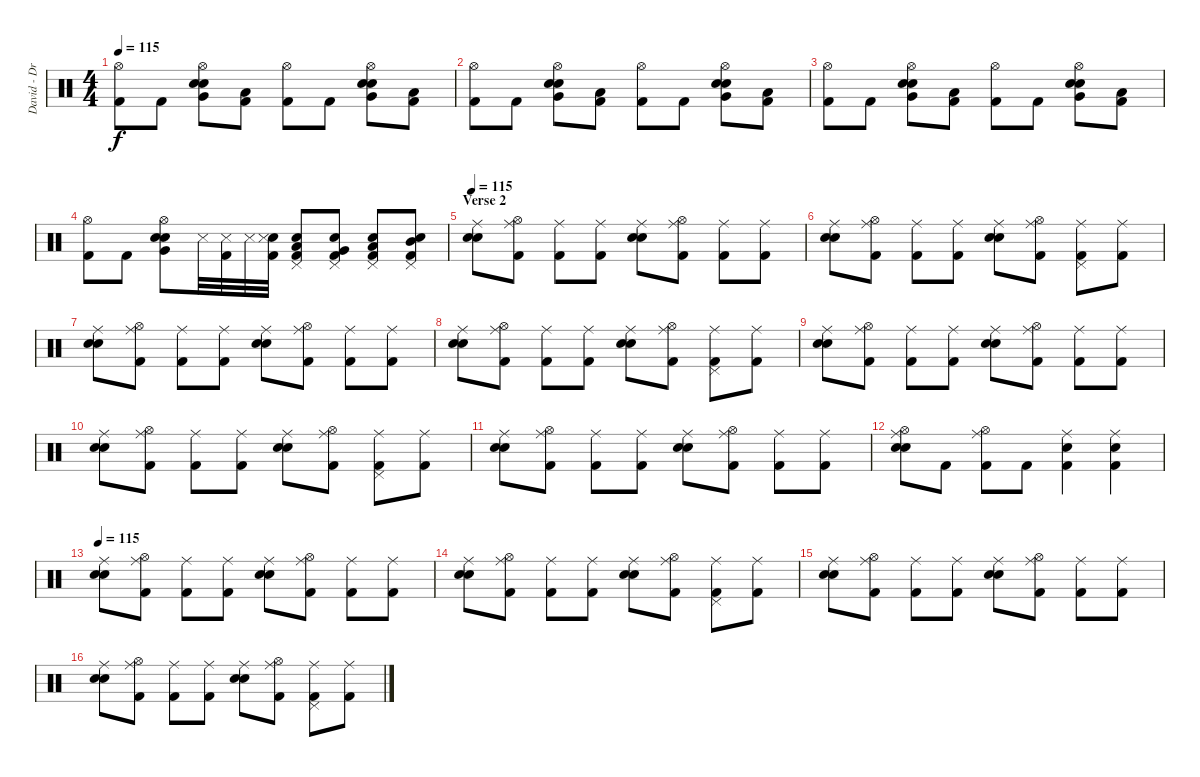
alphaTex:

\track ("David - Drums" "David - Dr") {instrument percussion}
\staff {score}
\articulation defaults
\ts (4 4)
\tempo 115
\clef neutral
\ks c
("Hi-Hat (open)" "Kick (hit) 2").8{dy f} "Kick (hit) 2".8 ("Hi-Hat (open)" "Very Low Tom (hit)" "Electric Snare (hit)" "Snare (hit) 2").8 ("Low Floor Tom (hit)" "Kick (hit) 2").8 ("Hi-Hat (open)" "Kick (hit) 2").8 "Kick (hit) 2".8 ("Hi-Hat (open)" "Very Low Tom (hit)" "Electric Snare (hit)" "Snare (hit) 2").8 ("Low Floor Tom (hit)" "Kick (hit) 2").8 |
("Hi-Hat (open)" "Kick (hit) 2").8 "Kick (hit) 2".8 ("Hi-Hat (open)" "Very Low Tom (hit)" "Electric Snare (hit)" "Snare (hit) 2").8 ("Low Floor Tom (hit)" "Kick (hit) 2").8 ("Hi-Hat (open)" "Kick (hit) 2").8 "Kick (hit) 2".8 ("Hi-Hat (open)" "Very Low Tom (hit)" "Electric Snare (hit)" "Snare (hit) 2").8 ("Low Floor Tom (hit)" "Kick (hit) 2").8 |
("Hi-Hat (open)" "Kick (hit) 2").8 "Kick (hit) 2".8 ("Hi-Hat (open)" "Very Low Tom (hit)" "Electric Snare (hit)" "Snare (hit) 2").8 ("Low Floor Tom (hit)" "Kick (hit) 2").8 ("Hi-Hat (open)" "Kick (hit) 2").8 "Kick (hit) 2".8 ("Hi-Hat (open)" "Very Low Tom (hit)" "Electric Snare (hit)" "Snare (hit) 2").8 ("Low Floor Tom (hit)" "Kick (hit) 2").8 |
("Hi-Hat (open)" "Kick (hit) 2").8 "Kick (hit) 2".8 ("Hi-Hat (open)" "Very Low Tom (hit)" "Electric Snare (hit)" "Snare (hit) 2").8 "Snare (side stick) 3".32 ("Snare (side stick) 3" "Kick (hit) 2").32 "Snare (side stick) 3".32 ("Electric Snare (hit)" "Snare (side stick) 3" "Kick (hit) 2").32 ("Pedal Hi-Hat (hit)" "Low Floor Tom (hit)" "Electric Snare (hit)" "Kick (hit) 2").8 ("Pedal Hi-Hat (hit)" "Very Low Tom (hit)" "Electric Snare (hit)" "Kick (hit) 2").8 ("Pedal Hi-Hat (hit)" "Low Tom (hit)" "Electric Snare (hit)" "Kick (hit) 2").8 ("Pedal Hi-Hat (hit)" "Mid Tom (hit)" "Electric Snare (hit)" "Kick (hit) 2").8 |
\section ("" "Verse 2")
\tempo 115
("Ride (middle)" "Electric Snare (hit)" "Snare (hit) 2").8 ("Ride (middle)" "Hi-Hat (open)" "Kick (hit) 2").8 ("Ride (middle)" "Kick (hit) 2").8 ("Ride (middle)" "Kick (hit) 2").8 ("Ride (middle)" "Electric Snare (hit)" "Snare (hit) 2").8 ("Ride (middle)" "Hi-Hat (open)" "Kick (hit) 2").8 ("Ride (middle)" "Kick (hit) 2").8 ("Ride (middle)" "Kick (hit) 2").8 |
("Ride (middle)" "Electric Snare (hit)" "Snare (hit) 2").8 ("Ride (middle)" "Hi-Hat (open)" "Kick (hit) 2").8 ("Ride (middle)" "Kick (hit) 2").8 ("Ride (middle)" "Kick (hit) 2").8 ("Ride (middle)" "Electric Snare (hit)" "Snare (hit) 2").8 ("Ride (middle)" "Hi-Hat (open)" "Kick (hit) 2").8 ("Ride (middle)" "Pedal Hi-Hat (hit)" "Kick (hit) 2").8 ("Ride (middle)" "Kick (hit) 2").8 |
("Ride (middle)" "Electric Snare (hit)" "Snare (hit) 2").8 ("Ride (middle)" "Hi-Hat (open)" "Kick (hit) 2").8 ("Ride (middle)" "Kick (hit) 2").8 ("Ride (middle)" "Kick (hit) 2").8 ("Ride (middle)" "Electric Snare (hit)" "Snare (hit) 2").8 ("Ride (middle)" "Hi-Hat (open)" "Kick (hit) 2").8 ("Ride (middle)" "Kick (hit) 2").8 ("Ride (middle)" "Kick (hit) 2").8 |
("Ride (middle)" "Electric Snare (hit)" "Snare (hit) 2").8 ("Ride (middle)" "Hi-Hat (open)" "Kick (hit) 2").8 ("Ride (middle)" "Kick (hit) 2").8 ("Ride (middle)" "Kick (hit) 2").8 ("Ride (middle)" "Electric Snare (hit)" "Snare (hit) 2").8 ("Ride (middle)" "Hi-Hat (open)" "Kick (hit) 2").8 ("Ride (middle)" "Pedal Hi-Hat (hit)" "Kick (hit) 2").8 ("Ride (middle)" "Kick (hit) 2").8 |
("Ride (middle)" "Electric Snare (hit)" "Snare (hit) 2").8 ("Ride (middle)" "Hi-Hat (open)" "Kick (hit) 2").8 ("Ride (middle)" "Kick (hit) 2").8 ("Ride (middle)" "Kick (hit) 2").8 ("Ride (middle)" "Electric Snare (hit)" "Snare (hit) 2").8 ("Ride (middle)" "Hi-Hat (open)" "Kick (hit) 2").8 ("Ride (middle)" "Kick (hit) 2").8 ("Ride (middle)" "Kick (hit) 2").8 |
("Ride (middle)" "Electric Snare (hit)" "Snare (hit) 2").8 ("Ride (middle)" "Hi-Hat (open)" "Kick (hit) 2").8 ("Ride (middle)" "Kick (hit) 2").8 ("Ride (middle)" "Kick (hit) 2").8 ("Ride (middle)" "Electric Snare (hit)" "Snare (hit) 2").8 ("Ride (middle)" "Hi-Hat (open)" "Kick (hit) 2").8 ("Ride (middle)" "Pedal Hi-Hat (hit)" "Kick (hit) 2").8 ("Ride (middle)" "Kick (hit) 2").8 |
("Ride (middle)" "Electric Snare (hit)" "Snare (hit) 2").8 ("Ride (middle)" "Hi-Hat (open)" "Kick (hit) 2").8 ("Ride (middle)" "Kick (hit) 2").8 ("Ride (middle)" "Kick (hit) 2").8 ("Ride (middle)" "Electric Snare (hit)" "Snare (hit) 2").8 ("Ride (middle)" "Hi-Hat (open)" "Kick (hit) 2").8 ("Ride (middle)" "Kick (hit) 2").8 ("Ride (middle)" "Kick (hit) 2").8 |
("Ride (middle)" "Hi-Hat (open)" "Electric Snare (hit)" "Snare (hit) 2").8 "Kick (hit) 2".8 ("Ride (middle)" "Hi-Hat (open)" "Kick (hit) 2").8 "Kick (hit) 2".8 ("Ride (middle)" "Electric Snare (hit)" "Kick (hit) 2").4{bd 120} ("Ride (middle)" "Electric Snare (hit)" "Kick (hit) 2").4 |
\tempo 115
("Ride (middle)" "Electric Snare (hit)" "Snare (hit) 2").8 ("Ride (middle)" "Hi-Hat (open)" "Kick (hit) 2").8 ("Ride (middle)" "Kick (hit) 2").8 ("Ride (middle)" "Kick (hit) 2").8 ("Ride (middle)" "Electric Snare (hit)" "Snare (hit) 2").8 ("Ride (middle)" "Hi-Hat (open)" "Kick (hit) 2").8 ("Ride (middle)" "Kick (hit) 2").8 ("Ride (middle)" "Kick (hit) 2").8 |
("Ride (middle)" "Electric Snare (hit)" "Snare (hit) 2").8 ("Ride (middle)" "Hi-Hat (open)" "Kick (hit) 2").8 ("Ride (middle)" "Kick (hit) 2").8 ("Ride (middle)" "Kick (hit) 2").8 ("Ride (middle)" "Electric Snare (hit)" "Snare (hit) 2").8 ("Ride (middle)" "Hi-Hat (open)" "Kick (hit) 2").8 ("Ride (middle)" "Pedal Hi-Hat (hit)" "Kick (hit) 2").8 ("Ride (middle)" "Kick (hit) 2").8 |
("Ride (middle)" "Electric Snare (hit)" "Snare (hit) 2").8 ("Ride (middle)" "Hi-Hat (open)" "Kick (hit) 2").8 ("Ride (middle)" "Kick (hit) 2").8 ("Ride (middle)" "Kick (hit) 2").8 ("Ride (middle)" "Electric Snare (hit)" "Snare (hit) 2").8 ("Ride (middle)" "Hi-Hat (open)" "Kick (hit) 2").8 ("Ride (middle)" "Kick (hit) 2").8 ("Ride (middle)" "Kick (hit) 2").8 |
("Ride (middle)" "Electric Snare (hit)" "Snare (hit) 2").8 ("Ride (middle)" "Hi-Hat (open)" "Kick (hit) 2").8 ("Ride (middle)" "Kick (hit) 2").8 ("Ride (middle)" "Kick (hit) 2").8 ("Ride (middle)" "Electric Snare (hit)" "Snare (hit) 2").8 ("Ride (middle)" "Hi-Hat (open)" "Kick (hit) 2").8 ("Ride (middle)" "Pedal Hi-Hat (hit)" "Kick (hit) 2").8 ("Ride (middle)" "Kick (hit) 2").8
